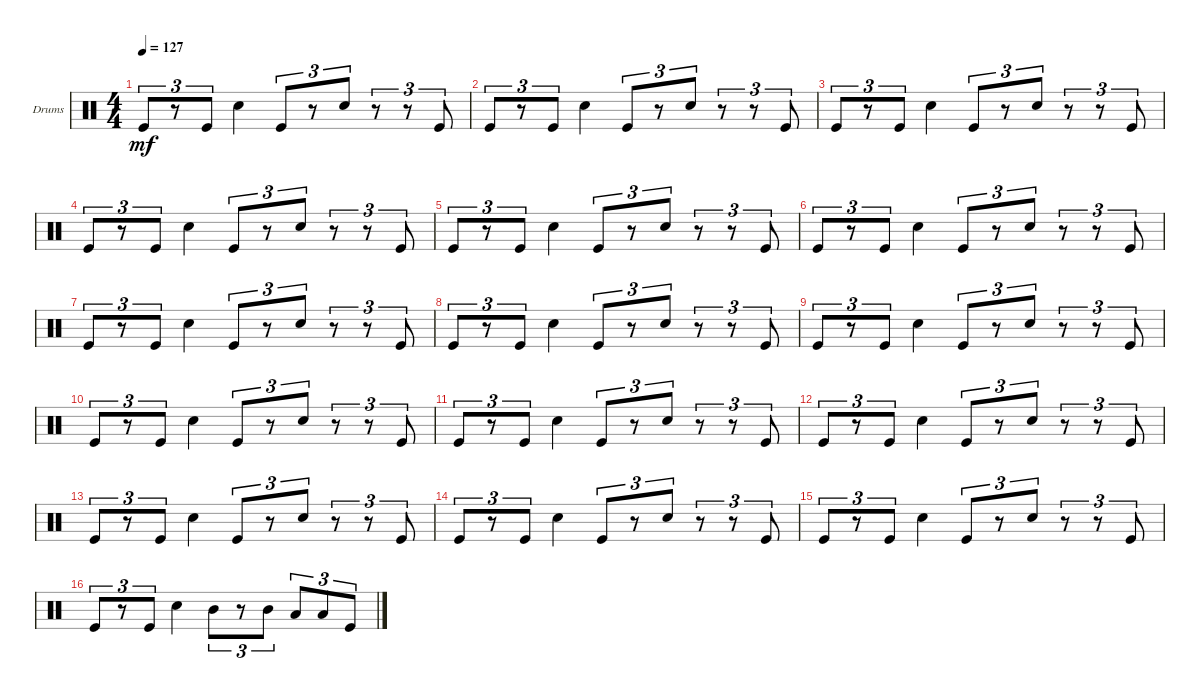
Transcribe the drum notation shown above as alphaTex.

\defaultSystemsLayout 4
\bracketExtendMode groupsimilarinstruments
\firstSystemTrackNameOrientation horizontal
\otherSystemsTrackNameOrientation horizontal
\track ("Drumkit" "Drums") {instrument percussion}
\staff {score}
\articulation defaults
\ts (4 4)
\tempo 127
\clef neutral
\scale
0.333333
\ks c "Kick (hit)".8{tu (3 2) dy mf}
r.8{tu (3 2)} "Kick (hit)".8{tu (3 2)} "Snare (hit) 2".4 "Kick (hit)".8{tu (3 2)} r.8{tu (3 2)} "Snare (hit) 2".8{tu (3 2)} r.8{tu (3 2)} r.8{tu (3 2)} "Kick (hit)".8{tu (3 2)} |
\scale
0.333333 "Kick (hit)".8{tu (3 2)} r.8{tu (3 2)} "Kick (hit)".8{tu (3 2)} "Snare (hit) 2".4 "Kick (hit)".8{tu (3 2)} r.8{tu (3 2)} "Snare (hit) 2".8{tu (3 2)} r.8{tu (3 2)} r.8{tu (3 2)} "Kick (hit)".8{tu (3 2)} |
\scale
0.333333 "Kick (hit)".8{tu (3 2)} r.8{tu (3 2)} "Kick (hit)".8{tu (3 2)} "Snare (hit) 2".4 "Kick (hit)".8{tu (3 2)} r.8{tu (3 2)} "Snare (hit) 2".8{tu (3 2)} r.8{tu (3 2)} r.8{tu (3 2)} "Kick (hit)".8{tu (3 2)} |
\scale
0.333333 "Kick (hit)".8{tu (3 2)} r.8{tu (3 2)} "Kick (hit)".8{tu (3 2)} "Snare (hit) 2".4 "Kick (hit)".8{tu (3 2)} r.8{tu (3 2)} "Snare (hit) 2".8{tu (3 2)} r.8{tu (3 2)} r.8{tu (3 2)} "Kick (hit)".8{tu (3 2)} |
\scale
0.333333 "Kick (hit)".8{tu (3 2)} r.8{tu (3 2)} "Kick (hit)".8{tu (3 2)} "Snare (hit) 2".4 "Kick (hit)".8{tu (3 2)} r.8{tu (3 2)} "Snare (hit) 2".8{tu (3 2)} r.8{tu (3 2)} r.8{tu (3 2)} "Kick (hit)".8{tu (3 2)} |
\scale
0.333333 "Kick (hit)".8{tu (3 2)} r.8{tu (3 2)} "Kick (hit)".8{tu (3 2)} "Snare (hit) 2".4 "Kick (hit)".8{tu (3 2)} r.8{tu (3 2)} "Snare (hit) 2".8{tu (3 2)} r.8{tu (3 2)} r.8{tu (3 2)} "Kick (hit)".8{tu (3 2)} |
\scale
0.333333 "Kick (hit)".8{tu (3 2)} r.8{tu (3 2)} "Kick (hit)".8{tu (3 2)} "Snare (hit) 2".4 "Kick (hit)".8{tu (3 2)} r.8{tu (3 2)} "Snare (hit) 2".8{tu (3 2)} r.8{tu (3 2)} r.8{tu (3 2)} "Kick (hit)".8{tu (3 2)} |
\scale
0.333333 "Kick (hit)".8{tu (3 2)} r.8{tu (3 2)} "Kick (hit)".8{tu (3 2)} "Snare (hit) 2".4 "Kick (hit)".8{tu (3 2)} r.8{tu (3 2)} "Snare (hit) 2".8{tu (3 2)} r.8{tu (3 2)} r.8{tu (3 2)} "Kick (hit)".8{tu (3 2)} |
\scale
0.333333 "Kick (hit)".8{tu (3 2)} r.8{tu (3 2)} "Kick (hit)".8{tu (3 2)} "Snare (hit) 2".4 "Kick (hit)".8{tu (3 2)} r.8{tu (3 2)} "Snare (hit) 2".8{tu (3 2)} r.8{tu (3 2)} r.8{tu (3 2)} "Kick (hit)".8{tu (3 2)} |
\scale
0.333333 "Kick (hit)".8{tu (3 2)} r.8{tu (3 2)} "Kick (hit)".8{tu (3 2)} "Snare (hit) 2".4 "Kick (hit)".8{tu (3 2)} r.8{tu (3 2)} "Snare (hit) 2".8{tu (3 2)} r.8{tu (3 2)} r.8{tu (3 2)} "Kick (hit)".8{tu (3 2)} |
\scale
0.333333 "Kick (hit)".8{tu (3 2)} r.8{tu (3 2)} "Kick (hit)".8{tu (3 2)} "Snare (hit) 2".4 "Kick (hit)".8{tu (3 2)} r.8{tu (3 2)} "Snare (hit) 2".8{tu (3 2)} r.8{tu (3 2)} r.8{tu (3 2)} "Kick (hit)".8{tu (3 2)} |
\scale
0.333333 "Kick (hit)".8{tu (3 2)} r.8{tu (3 2)} "Kick (hit)".8{tu (3 2)} "Snare (hit) 2".4 "Kick (hit)".8{tu (3 2)} r.8{tu (3 2)} "Snare (hit) 2".8{tu (3 2)} r.8{tu (3 2)} r.8{tu (3 2)} "Kick (hit)".8{tu (3 2)} |
\scale
0.333333 "Kick (hit)".8{tu (3 2)} r.8{tu (3 2)} "Kick (hit)".8{tu (3 2)} "Snare (hit) 2".4 "Kick (hit)".8{tu (3 2)} r.8{tu (3 2)} "Snare (hit) 2".8{tu (3 2)} r.8{tu (3 2)} r.8{tu (3 2)} "Kick (hit)".8{tu (3 2)} |
\scale
0.333333 "Kick (hit)".8{tu (3 2)} r.8{tu (3 2)} "Kick (hit)".8{tu (3 2)} "Snare (hit) 2".4 "Kick (hit)".8{tu (3 2)} r.8{tu (3 2)} "Snare (hit) 2".8{tu (3 2)} r.8{tu (3 2)} r.8{tu (3 2)} "Kick (hit)".8{tu (3 2)} |
\scale
0.333333 "Kick (hit)".8{tu (3 2)} r.8{tu (3 2)} "Kick (hit)".8{tu (3 2)} "Snare (hit) 2".4 "Kick (hit)".8{tu (3 2)} r.8{tu (3 2)} "Snare (hit) 2".8{tu (3 2)} r.8{tu (3 2)} r.8{tu (3 2)} "Kick (hit)".8{tu (3 2)} |
\scale
0.333333 "Kick (hit)".8{tu (3 2)} r.8{tu (3 2)} "Kick (hit)".8{tu (3 2)} "Snare (hit) 2".4 "Mid Tom (hit)".8{tu (3 2)} r.8{tu (3 2)} "Mid Tom (hit)".8{tu (3 2)} "Low Tom (hit)".8{tu (3 2)} "Low Tom (hit)".8{tu (3 2)} "Kick (hit)".8{tu (3 2)}
